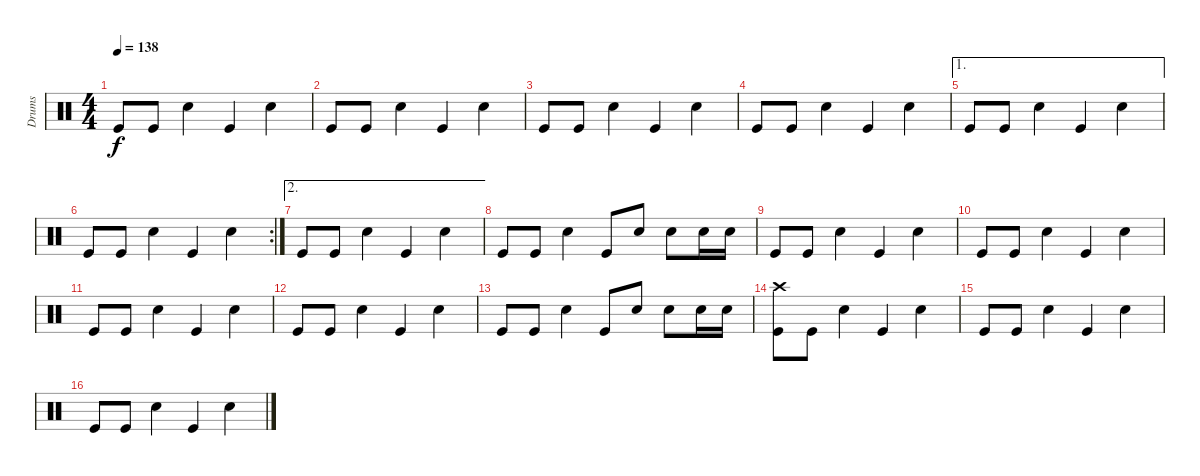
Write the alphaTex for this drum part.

\track ("Drums" "Drums") {instrument percussion}
\staff {score}
\articulation defaults
\ts (4 4)
\tempo 138
\clef neutral
\ks c "Kick (hit)".8{dy f} "Kick (hit)".8 "Snare (hit) 2".4 "Kick (hit)".4 "Snare (hit) 2".4
|
"Kick (hit)".8 "Kick (hit)".8 "Snare (hit) 2".4 "Kick (hit)".4 "Snare (hit) 2".4 |
"Kick (hit)".8 "Kick (hit)".8 "Snare (hit) 2".4 "Kick (hit)".4 "Snare (hit) 2".4 |
"Kick (hit)".8 "Kick (hit)".8 "Snare (hit) 2".4 "Kick (hit)".4 "Snare (hit) 2".4 |
\ae 1 "Kick (hit)".8 "Kick (hit)".8 "Snare (hit) 2".4 "Kick (hit)".4 "Snare (hit) 2".4
|
\rc 2 "Kick (hit)".8 "Kick (hit)".8 "Snare (hit) 2".4 "Kick (hit)".4 "Snare (hit) 2".4
|
\ae 2 "Kick (hit)".8 "Kick (hit)".8 "Snare (hit) 2".4 "Kick (hit)".4 "Snare (hit) 2".4
|
"Kick (hit)".8 "Kick (hit)".8 "Snare (hit) 2".4 "Kick (hit)".8 "Snare (hit) 2".8 "Snare (hit) 2".8 "Snare (hit) 2".16 "Snare (hit) 2".16 |
"Kick (hit)".8 "Kick (hit)".8 "Snare (hit) 2".4 "Kick (hit)".4 "Snare (hit) 2".4 |
"Kick (hit)".8 "Kick (hit)".8 "Snare (hit) 2".4 "Kick (hit)".4 "Snare (hit) 2".4 |
"Kick (hit)".8 "Kick (hit)".8 "Snare (hit) 2".4 "Kick (hit)".4 "Snare (hit) 2".4 |
"Kick (hit)".8 "Kick (hit)".8 "Snare (hit) 2".4 "Kick (hit)".4 "Snare (hit) 2".4 |
"Kick (hit)".8 "Kick (hit)".8 "Snare (hit) 2".4 "Kick (hit)".8 "Snare (hit) 2".8 "Snare (hit) 2".8 "Snare (hit) 2".16 "Snare (hit) 2".16 |
("Crash high (hit)" "Kick (hit)").8 "Kick (hit)".8 "Snare (hit) 2".4 "Kick (hit)".4 "Snare (hit) 2".4 |
"Kick (hit)".8 "Kick (hit)".8 "Snare (hit) 2".4 "Kick (hit)".4 "Snare (hit) 2".4 |
"Kick (hit)".8 "Kick (hit)".8 "Snare (hit) 2".4 "Kick (hit)".4 "Snare (hit) 2".4
